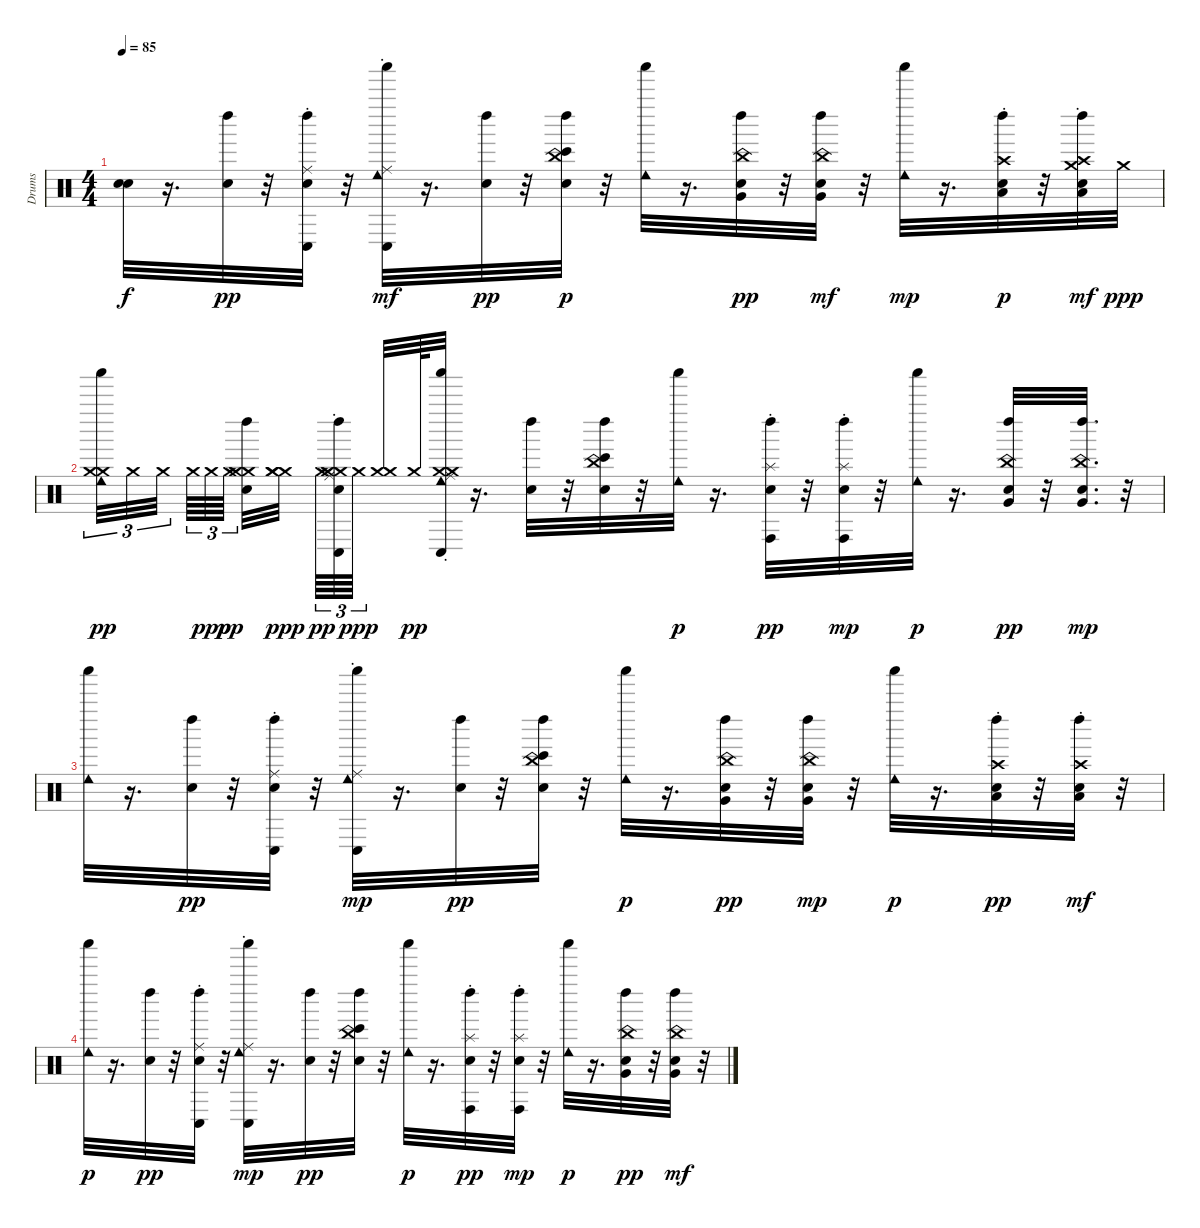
\track ("Drums" "Drums") {instrument percussion}
\staff {score}
\articulation defaults
\ts (4 4)
\tempo 85
\clef neutral
\ks c
("Snare (hit)"{t} "Snare (hit)"{t}).32{dy f} r.16{d} ("Left Maraca (hit)" "Snare (hit)").32{dy pp} r.32 ("Conga low (hit)" "Ride (choke)" "Left Maraca (hit)" "Snare (hit)").32 r.32 ("Shaker (hit)" "Cowbell low (hit)" "Conga low (hit)" "Ride (choke)").32{dy mf} r.16{d} ("Left Maraca (hit)" "Snare (hit)").32{dy pp} r.32 ("China (choke)" "Bongo High (hit)" "Snare (hit)" "Left Maraca (hit)").32{dy p} r.32 ("Shaker (hit)" "Cowbell low (hit)").32 r.16{d} ("China (choke)" "Very Low Tom (hit)" "Snare (hit)" "Left Maraca (hit)").32{dy pp} r.32 ("Snare (hit)" "Left Maraca (hit)" "Very Low Tom (hit)" "China (choke)").32{dy mf} r.32 ("Cowbell low (hit)" "Shaker (hit)").32{dy mp} r.16{d} ("Low Floor Tom (hit)" "Crash high (choke)" "Left Maraca (hit)" "Snare (hit)").32{dy p} r.32 ("Crash medium (hit)" "Left Maraca (hit)" "Snare (hit)" "Crash high (choke)" "Low Floor Tom (hit)").32{dy mf} "Crash medium (hit)".32{dy ppp} |
("Shaker (hit)" "Cowbell low (hit)" "Crash medium (hit)" "Crash medium (hit)").32{tu (3 2) dy pp} "Crash medium (hit)".32{tu (3 2)} "Crash medium (hit)".32{tu (3 2)} "Crash medium (hit)".64{tu (3 2)} "Crash medium (hit)".64{tu (3 2) dy ppp} "Crash medium (hit)".64{tu (3 2) dy pp} ("Crash medium (hit)" "Left Maraca (hit)" "Snare (hit)" "Crash medium (hit)").32 ("Crash medium (hit)" "Crash medium (hit)" "Crash medium (hit)").32{dy ppp} "Crash medium (hit)".64{tu (3 2) dy pp} ("Crash medium (hit)" "Conga low (hit)" "Ride (choke)" "Left Maraca (hit)" "Snare (hit)" "Crash medium (hit)").64{tu (3 2)} "Crash medium (hit)".64{tu (3 2) dy ppp} ("Crash medium (hit)" "Crash medium (hit)").32 "Crash medium (hit)".64{dy pp} ("Crash medium (hit)" "Shaker (hit)" "Conga low (hit)" "Cowbell low (hit)" "Ride (choke)" "Crash medium (hit)").32 r.16{d} ("Left Maraca (hit)" "Snare (hit)").32 r.32 ("China (choke)" "Bongo High (hit)" "Left Maraca (hit)" "Snare (hit)").32 r.32 ("Shaker (hit)" "Cowbell low (hit)").32{dy p} r.16{d} ("Conga high (hit)" "Left Maraca (hit)" "Splash (choke)" "Snare (hit)").32{dy pp} r.32 ("Left Maraca (hit)" "Snare (hit)" "Conga high (hit)" "Splash (choke)").32{dy mp} r.32 ("Shaker (hit)" "Cowbell low (hit)").32{dy p} r.16{d} ("China (choke)" "Very Low Tom (hit)" "Left Maraca (hit)" "Snare (hit)").32{dy pp} r.32 ("Left Maraca (hit)" "China (choke)" "Snare (hit)" "Very Low Tom (hit)").32{d dy mp} r.32 |
("Cowbell low (hit)" "Shaker (hit)").32 r.16{d} ("Left Maraca (hit)" "Snare (hit)").32{dy pp} r.32 ("Ride (choke)" "Conga low (hit)" "Snare (hit)" "Left Maraca (hit)").32 r.32 ("Shaker (hit)" "Cowbell low (hit)" "Conga low (hit)" "Ride (choke)").32{dy mp} r.16{d} ("Left Maraca (hit)" "Snare (hit)").32{dy pp} r.32 ("China (choke)" "Bongo High (hit)" "Left Maraca (hit)" "Snare (hit)").32 r.32 ("Shaker (hit)" "Cowbell low (hit)").32{dy p} r.16{d} ("China (choke)" "Very Low Tom (hit)" "Left Maraca (hit)" "Snare (hit)").32{dy pp} r.32 ("Left Maraca (hit)" "China (choke)" "Snare (hit)" "Very Low Tom (hit)").32{dy mp} r.32 ("Shaker (hit)" "Cowbell low (hit)").32{dy p} r.16{d} ("Low Floor Tom (hit)" "Crash high (choke)" "Left Maraca (hit)" "Snare (hit)").32{dy pp} r.32 ("Snare (hit)" "Left Maraca (hit)" "Low Floor Tom (hit)" "Crash high (choke)").32{dy mf} r.32 |
("Shaker (hit)" "Cowbell low (hit)").32{dy p} r.16{d} ("Left Maraca (hit)" "Snare (hit)").32{dy pp} r.32 ("Conga low (hit)" "Ride (choke)" "Left Maraca (hit)" "Snare (hit)").32 r.32 ("Shaker (hit)" "Cowbell low (hit)" "Conga low (hit)" "Ride (choke)").32{dy mp} r.16{d} ("Left Maraca (hit)" "Snare (hit)").32{dy pp} r.32 ("Bongo High (hit)" "China (choke)" "Left Maraca (hit)" "Snare (hit)").32 r.32 ("Shaker (hit)" "Cowbell low (hit)").32{dy p} r.16{d} ("Conga high (hit)" "Left Maraca (hit)" "Splash (choke)" "Snare (hit)").32{dy pp} r.32 ("Left Maraca (hit)" "Snare (hit)" "Conga high (hit)" "Splash (choke)").32{dy mp} r.32 ("Shaker (hit)" "Cowbell low (hit)").32{dy p} r.16{d} ("China (choke)" "Very Low Tom (hit)" "Snare (hit)" "Left Maraca (hit)").32{dy pp} r.32 ("Snare (hit)" "Left Maraca (hit)" "Very Low Tom (hit)" "China (choke)").32{dy mf} r.32
